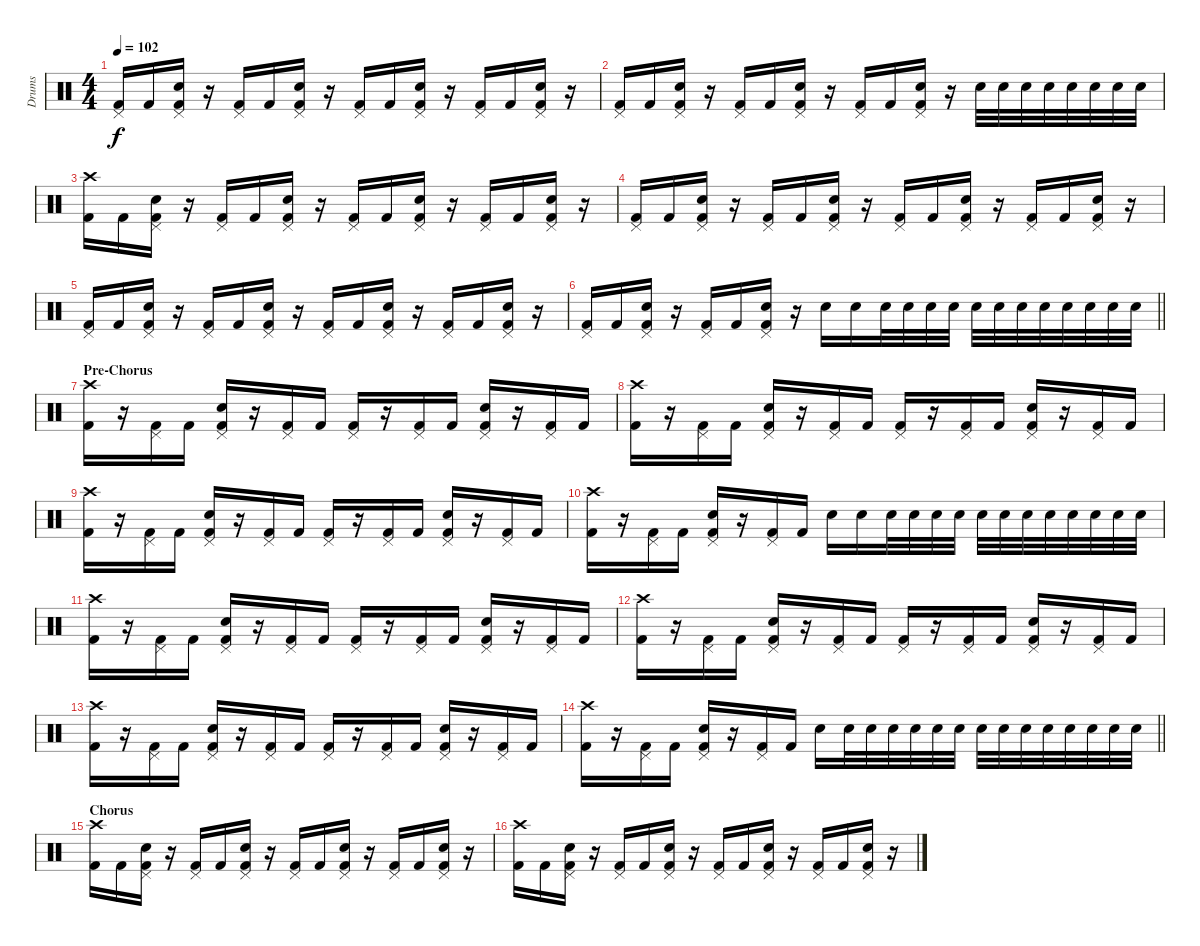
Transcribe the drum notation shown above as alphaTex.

\track ("Drums" "Drums") {instrument percussion}
\staff {score}
\articulation defaults
\ts (4 4)
\tempo 102
\clef neutral
\ks c
("Pedal Hi-Hat (hit)" "Kick (hit) 2").16{dy f} "Kick (hit) 2".16 ("Pedal Hi-Hat (hit)" "Snare (hit) 2" "Kick (hit) 2").16 r.16 ("Pedal Hi-Hat (hit)" "Kick (hit) 2").16 "Kick (hit) 2".16 ("Pedal Hi-Hat (hit)" "Snare (hit) 2" "Kick (hit) 2").16 r.16 ("Pedal Hi-Hat (hit)" "Kick (hit) 2").16 "Kick (hit) 2".16 ("Pedal Hi-Hat (hit)" "Snare (hit) 2" "Kick (hit) 2").16 r.16 ("Pedal Hi-Hat (hit)" "Kick (hit) 2").16 "Kick (hit) 2".16 ("Pedal Hi-Hat (hit)" "Snare (hit) 2" "Kick (hit) 2").16 r.16 |
("Pedal Hi-Hat (hit)" "Kick (hit) 2").16 "Kick (hit) 2".16 ("Pedal Hi-Hat (hit)" "Snare (hit) 2" "Kick (hit) 2").16 r.16 ("Pedal Hi-Hat (hit)" "Kick (hit) 2").16 "Kick (hit) 2".16 ("Pedal Hi-Hat (hit)" "Snare (hit) 2" "Kick (hit) 2").16 r.16 ("Pedal Hi-Hat (hit)" "Kick (hit) 2").16 "Kick (hit) 2".16 ("Pedal Hi-Hat (hit)" "Snare (hit) 2" "Kick (hit) 2").16 r.16 "Snare (hit) 2".32 "Snare (hit) 2".32 "Snare (hit) 2".32 "Snare (hit) 2".32 "Snare (hit) 2".32 "Snare (hit) 2".32 "Snare (hit) 2".32 "Snare (hit) 2".32 |
("Crash high (hit)" "Kick (hit) 2").16 "Kick (hit) 2".16 ("Pedal Hi-Hat (hit)" "Snare (hit) 2" "Kick (hit) 2").16 r.16 ("Pedal Hi-Hat (hit)" "Kick (hit) 2").16 "Kick (hit) 2".16 ("Pedal Hi-Hat (hit)" "Snare (hit) 2" "Kick (hit) 2").16 r.16 ("Pedal Hi-Hat (hit)" "Kick (hit) 2").16 "Kick (hit) 2".16 ("Pedal Hi-Hat (hit)" "Snare (hit) 2" "Kick (hit) 2").16 r.16 ("Pedal Hi-Hat (hit)" "Kick (hit) 2").16 "Kick (hit) 2".16 ("Pedal Hi-Hat (hit)" "Snare (hit) 2" "Kick (hit) 2").16 r.16 |
("Pedal Hi-Hat (hit)" "Kick (hit) 2").16 "Kick (hit) 2".16 ("Pedal Hi-Hat (hit)" "Snare (hit) 2" "Kick (hit) 2").16 r.16 ("Pedal Hi-Hat (hit)" "Kick (hit) 2").16 "Kick (hit) 2".16 ("Pedal Hi-Hat (hit)" "Snare (hit) 2" "Kick (hit) 2").16 r.16 ("Pedal Hi-Hat (hit)" "Kick (hit) 2").16 "Kick (hit) 2".16 ("Pedal Hi-Hat (hit)" "Snare (hit) 2" "Kick (hit) 2").16 r.16 ("Pedal Hi-Hat (hit)" "Kick (hit) 2").16 "Kick (hit) 2".16 ("Pedal Hi-Hat (hit)" "Snare (hit) 2" "Kick (hit) 2").16 r.16 |
("Pedal Hi-Hat (hit)" "Kick (hit) 2").16 "Kick (hit) 2".16 ("Pedal Hi-Hat (hit)" "Snare (hit) 2" "Kick (hit) 2").16 r.16 ("Pedal Hi-Hat (hit)" "Kick (hit) 2").16 "Kick (hit) 2".16 ("Pedal Hi-Hat (hit)" "Snare (hit) 2" "Kick (hit) 2").16 r.16 ("Pedal Hi-Hat (hit)" "Kick (hit) 2").16 "Kick (hit) 2".16 ("Pedal Hi-Hat (hit)" "Snare (hit) 2" "Kick (hit) 2").16 r.16 ("Pedal Hi-Hat (hit)" "Kick (hit) 2").16 "Kick (hit) 2".16 ("Pedal Hi-Hat (hit)" "Snare (hit) 2" "Kick (hit) 2").16 r.16 |
\barLineRight lightlight
("Pedal Hi-Hat (hit)" "Kick (hit) 2").16 "Kick (hit) 2".16 ("Pedal Hi-Hat (hit)" "Snare (hit) 2" "Kick (hit) 2").16 r.16 ("Pedal Hi-Hat (hit)" "Kick (hit) 2").16 "Kick (hit) 2".16 ("Pedal Hi-Hat (hit)" "Snare (hit) 2" "Kick (hit) 2").16 r.16 "Snare (hit) 2".16 "Snare (hit) 2".16 "Snare (hit) 2".32 "Snare (hit) 2".32 "Snare (hit) 2".32 "Snare (hit) 2".32 "Snare (hit) 2".32 "Snare (hit) 2".32 "Snare (hit) 2".32 "Snare (hit) 2".32 "Snare (hit) 2".32 "Snare (hit) 2".32 "Snare (hit) 2".32 "Snare (hit) 2".32 |
\section ("" "Pre-Chorus")
("Crash high (hit)" "Kick (hit) 2").16 r.16 ("Pedal Hi-Hat (hit)" "Kick (hit) 2").16 "Kick (hit) 2".16 ("Pedal Hi-Hat (hit)" "Snare (hit) 2" "Kick (hit) 2").16 r.16 ("Pedal Hi-Hat (hit)" "Kick (hit) 2").16 "Kick (hit) 2".16 ("Pedal Hi-Hat (hit)" "Kick (hit) 2").16 r.16 ("Pedal Hi-Hat (hit)" "Kick (hit) 2").16 "Kick (hit) 2".16 ("Pedal Hi-Hat (hit)" "Snare (hit) 2" "Kick (hit) 2").16 r.16 ("Pedal Hi-Hat (hit)" "Kick (hit) 2").16 "Kick (hit) 2".16 |
("Crash high (hit)" "Kick (hit) 2").16 r.16 ("Pedal Hi-Hat (hit)" "Kick (hit) 2").16 "Kick (hit) 2".16 ("Pedal Hi-Hat (hit)" "Snare (hit) 2" "Kick (hit) 2").16 r.16 ("Pedal Hi-Hat (hit)" "Kick (hit) 2").16 "Kick (hit) 2".16 ("Pedal Hi-Hat (hit)" "Kick (hit) 2").16 r.16 ("Pedal Hi-Hat (hit)" "Kick (hit) 2").16 "Kick (hit) 2".16 ("Pedal Hi-Hat (hit)" "Snare (hit) 2" "Kick (hit) 2").16 r.16 ("Pedal Hi-Hat (hit)" "Kick (hit) 2").16 "Kick (hit) 2".16 |
("Crash high (hit)" "Kick (hit) 2").16 r.16 ("Pedal Hi-Hat (hit)" "Kick (hit) 2").16 "Kick (hit) 2".16 ("Pedal Hi-Hat (hit)" "Snare (hit) 2" "Kick (hit) 2").16 r.16 ("Pedal Hi-Hat (hit)" "Kick (hit) 2").16 "Kick (hit) 2".16 ("Pedal Hi-Hat (hit)" "Kick (hit) 2").16 r.16 ("Pedal Hi-Hat (hit)" "Kick (hit) 2").16 "Kick (hit) 2".16 ("Pedal Hi-Hat (hit)" "Snare (hit) 2" "Kick (hit) 2").16 r.16 ("Pedal Hi-Hat (hit)" "Kick (hit) 2").16 "Kick (hit) 2".16 |
("Crash high (hit)" "Kick (hit) 2").16 r.16 ("Pedal Hi-Hat (hit)" "Kick (hit) 2").16 "Kick (hit) 2".16 ("Pedal Hi-Hat (hit)" "Snare (hit) 2" "Kick (hit) 2").16 r.16 ("Pedal Hi-Hat (hit)" "Kick (hit) 2").16 "Kick (hit) 2".16 "Snare (hit) 2".16 "Snare (hit) 2".16 "Snare (hit) 2".32 "Snare (hit) 2".32 "Snare (hit) 2".32 "Snare (hit) 2".32 "Snare (hit) 2".32 "Snare (hit) 2".32 "Snare (hit) 2".32 "Snare (hit) 2".32 "Snare (hit) 2".32 "Snare (hit) 2".32 "Snare (hit) 2".32 "Snare (hit) 2".32 |
("Crash high (hit)" "Kick (hit) 2").16 r.16 ("Pedal Hi-Hat (hit)" "Kick (hit) 2").16 "Kick (hit) 2".16 ("Pedal Hi-Hat (hit)" "Snare (hit) 2" "Kick (hit) 2").16 r.16 ("Pedal Hi-Hat (hit)" "Kick (hit) 2").16 "Kick (hit) 2".16 ("Pedal Hi-Hat (hit)" "Kick (hit) 2").16 r.16 ("Pedal Hi-Hat (hit)" "Kick (hit) 2").16 "Kick (hit) 2".16 ("Pedal Hi-Hat (hit)" "Snare (hit) 2" "Kick (hit) 2").16 r.16 ("Pedal Hi-Hat (hit)" "Kick (hit) 2").16 "Kick (hit) 2".16 |
("Crash high (hit)" "Kick (hit) 2").16 r.16 ("Pedal Hi-Hat (hit)" "Kick (hit) 2").16 "Kick (hit) 2".16 ("Pedal Hi-Hat (hit)" "Snare (hit) 2" "Kick (hit) 2").16 r.16 ("Pedal Hi-Hat (hit)" "Kick (hit) 2").16 "Kick (hit) 2".16 ("Pedal Hi-Hat (hit)" "Kick (hit) 2").16 r.16 ("Pedal Hi-Hat (hit)" "Kick (hit) 2").16 "Kick (hit) 2".16 ("Pedal Hi-Hat (hit)" "Snare (hit) 2" "Kick (hit) 2").16 r.16 ("Pedal Hi-Hat (hit)" "Kick (hit) 2").16 "Kick (hit) 2".16 |
("Crash high (hit)" "Kick (hit) 2").16 r.16 ("Pedal Hi-Hat (hit)" "Kick (hit) 2").16 "Kick (hit) 2".16 ("Pedal Hi-Hat (hit)" "Snare (hit) 2" "Kick (hit) 2").16 r.16 ("Pedal Hi-Hat (hit)" "Kick (hit) 2").16 "Kick (hit) 2".16 ("Pedal Hi-Hat (hit)" "Kick (hit) 2").16 r.16 ("Pedal Hi-Hat (hit)" "Kick (hit) 2").16 "Kick (hit) 2".16 ("Pedal Hi-Hat (hit)" "Snare (hit) 2" "Kick (hit) 2").16 r.16 ("Pedal Hi-Hat (hit)" "Kick (hit) 2").16 "Kick (hit) 2".16 |
\barLineRight lightlight
("Crash high (hit)" "Kick (hit) 2").16 r.16 ("Pedal Hi-Hat (hit)" "Kick (hit) 2").16 "Kick (hit) 2".16 ("Pedal Hi-Hat (hit)" "Snare (hit) 2" "Kick (hit) 2").16 r.16 ("Pedal Hi-Hat (hit)" "Kick (hit) 2").16 "Kick (hit) 2".16 "Snare (hit) 2".16 "Snare (hit) 2".32 "Snare (hit) 2".32 "Snare (hit) 2".32 "Snare (hit) 2".32 "Snare (hit) 2".32 "Snare (hit) 2".32 "Snare (hit) 2".32 "Snare (hit) 2".32 "Snare (hit) 2".32 "Snare (hit) 2".32 "Snare (hit) 2".32 "Snare (hit) 2".32 "Snare (hit) 2".32 "Snare (hit) 2".32 |
\section ("" "Chorus")
("Crash high (hit)" "Kick (hit) 2").16 "Kick (hit) 2".16 ("Pedal Hi-Hat (hit)" "Snare (hit) 2" "Kick (hit) 2").16 r.16 ("Pedal Hi-Hat (hit)" "Kick (hit) 2").16 "Kick (hit) 2".16 ("Pedal Hi-Hat (hit)" "Snare (hit) 2" "Kick (hit) 2").16 r.16 ("Pedal Hi-Hat (hit)" "Kick (hit) 2").16 "Kick (hit) 2".16 ("Pedal Hi-Hat (hit)" "Snare (hit) 2" "Kick (hit) 2").16 r.16 ("Pedal Hi-Hat (hit)" "Kick (hit) 2").16 "Kick (hit) 2".16 ("Pedal Hi-Hat (hit)" "Snare (hit) 2" "Kick (hit) 2").16 r.16 |
("Crash high (hit)" "Kick (hit) 2").16 "Kick (hit) 2".16 ("Pedal Hi-Hat (hit)" "Snare (hit) 2" "Kick (hit) 2").16 r.16 ("Pedal Hi-Hat (hit)" "Kick (hit) 2").16 "Kick (hit) 2".16 ("Pedal Hi-Hat (hit)" "Snare (hit) 2" "Kick (hit) 2").16 r.16 ("Pedal Hi-Hat (hit)" "Kick (hit) 2").16 "Kick (hit) 2".16 ("Pedal Hi-Hat (hit)" "Snare (hit) 2" "Kick (hit) 2").16 r.16 ("Pedal Hi-Hat (hit)" "Kick (hit) 2").16 "Kick (hit) 2".16 ("Pedal Hi-Hat (hit)" "Snare (hit) 2" "Kick (hit) 2").16 r.16
